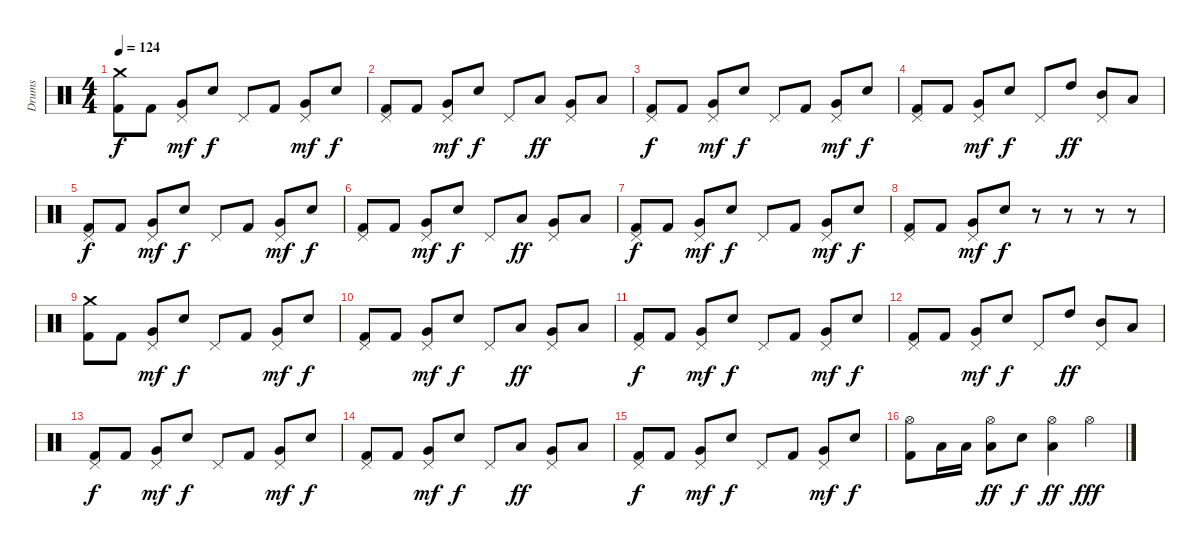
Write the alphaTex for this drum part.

\track ("Drums" "Drums") {instrument percussion}
\staff {score}
\articulation defaults
\ts (4 4)
\tempo 124
\clef neutral
\ks c
("Crash medium (hit)" "Kick (hit) 2").8{dy f} "Kick (hit) 2".8 ("Pedal Hi-Hat (hit)" "Very Low Tom (hit)").8{dy mf} "Snare (hit) 2".8{dy f} "Pedal Hi-Hat (hit)".8 "Kick (hit) 2".8 ("Pedal Hi-Hat (hit)" "Very Low Tom (hit)").8{dy mf} "Snare (hit) 2".8{dy f} |
("Pedal Hi-Hat (hit)" "Kick (hit) 2").8 "Kick (hit) 2".8 ("Pedal Hi-Hat (hit)" "Very Low Tom (hit)").8{dy mf} "Snare (hit) 2".8{dy f} "Pedal Hi-Hat (hit)".8 "Low Tom (hit)".8{dy ff} ("Pedal Hi-Hat (hit)" "Very Low Tom (hit)").8 "Low Floor Tom (hit)".8 |
("Pedal Hi-Hat (hit)" "Kick (hit) 2").8{dy f} "Kick (hit) 2".8 ("Pedal Hi-Hat (hit)" "Very Low Tom (hit)").8{dy mf} "Snare (hit) 2".8{dy f} "Pedal Hi-Hat (hit)".8 "Kick (hit) 2".8 ("Pedal Hi-Hat (hit)" "Very Low Tom (hit)").8{dy mf} "Snare (hit) 2".8{dy f} |
("Pedal Hi-Hat (hit)" "Kick (hit) 2").8 "Kick (hit) 2".8 ("Pedal Hi-Hat (hit)" "Very Low Tom (hit)").8{dy mf} "Snare (hit) 2".8{dy f} "Pedal Hi-Hat (hit)".8 "High Tom (hit)".8{dy ff} ("Pedal Hi-Hat (hit)" "Mid Tom (hit)").8 "Low Tom (hit)".8 |
("Pedal Hi-Hat (hit)" "Kick (hit) 2").8{dy f} "Kick (hit) 2".8 ("Pedal Hi-Hat (hit)" "Very Low Tom (hit)").8{dy mf} "Snare (hit) 2".8{dy f} "Pedal Hi-Hat (hit)".8 "Kick (hit) 2".8 ("Pedal Hi-Hat (hit)" "Very Low Tom (hit)").8{dy mf} "Snare (hit) 2".8{dy f} |
("Pedal Hi-Hat (hit)" "Kick (hit) 2").8 "Kick (hit) 2".8 ("Pedal Hi-Hat (hit)" "Very Low Tom (hit)").8{dy mf} "Snare (hit) 2".8{dy f} "Pedal Hi-Hat (hit)".8 "Low Tom (hit)".8{dy ff} ("Pedal Hi-Hat (hit)" "Very Low Tom (hit)").8 "Low Floor Tom (hit)".8 |
("Pedal Hi-Hat (hit)" "Kick (hit) 2").8{dy f} "Kick (hit) 2".8 ("Pedal Hi-Hat (hit)" "Very Low Tom (hit)").8{dy mf} "Snare (hit) 2".8{dy f} "Pedal Hi-Hat (hit)".8 "Kick (hit) 2".8 ("Pedal Hi-Hat (hit)" "Very Low Tom (hit)").8{dy mf} "Snare (hit) 2".8{dy f} |
("Pedal Hi-Hat (hit)" "Kick (hit) 2").8 "Kick (hit) 2".8 ("Pedal Hi-Hat (hit)" "Very Low Tom (hit)").8{dy mf} "Snare (hit) 2".8{dy f} r.8 r.8 r.8 r.8 |
("Crash medium (hit)" "Kick (hit) 2").8 "Kick (hit) 2".8 ("Pedal Hi-Hat (hit)" "Very Low Tom (hit)").8{dy mf} "Snare (hit) 2".8{dy f} "Pedal Hi-Hat (hit)".8 "Kick (hit) 2".8 ("Pedal Hi-Hat (hit)" "Very Low Tom (hit)").8{dy mf} "Snare (hit) 2".8{dy f} |
("Pedal Hi-Hat (hit)" "Kick (hit) 2").8 "Kick (hit) 2".8 ("Pedal Hi-Hat (hit)" "Very Low Tom (hit)").8{dy mf} "Snare (hit) 2".8{dy f} "Pedal Hi-Hat (hit)".8 "Low Tom (hit)".8{dy ff} ("Pedal Hi-Hat (hit)" "Very Low Tom (hit)").8 "Low Floor Tom (hit)".8 |
("Pedal Hi-Hat (hit)" "Kick (hit) 2").8{dy f} "Kick (hit) 2".8 ("Pedal Hi-Hat (hit)" "Very Low Tom (hit)").8{dy mf} "Snare (hit) 2".8{dy f} "Pedal Hi-Hat (hit)".8 "Kick (hit) 2".8 ("Pedal Hi-Hat (hit)" "Very Low Tom (hit)").8{dy mf} "Snare (hit) 2".8{dy f} |
("Pedal Hi-Hat (hit)" "Kick (hit) 2").8 "Kick (hit) 2".8 ("Pedal Hi-Hat (hit)" "Very Low Tom (hit)").8{dy mf} "Snare (hit) 2".8{dy f} "Pedal Hi-Hat (hit)".8 "High Tom (hit)".8{dy ff} ("Pedal Hi-Hat (hit)" "Mid Tom (hit)").8 "Low Tom (hit)".8 |
("Pedal Hi-Hat (hit)" "Kick (hit) 2").8{dy f} "Kick (hit) 2".8 ("Pedal Hi-Hat (hit)" "Very Low Tom (hit)").8{dy mf} "Snare (hit) 2".8{dy f} "Pedal Hi-Hat (hit)".8 "Kick (hit) 2".8 ("Pedal Hi-Hat (hit)" "Very Low Tom (hit)").8{dy mf} "Snare (hit) 2".8{dy f} |
("Pedal Hi-Hat (hit)" "Kick (hit) 2").8 "Kick (hit) 2".8 ("Pedal Hi-Hat (hit)" "Very Low Tom (hit)").8{dy mf} "Snare (hit) 2".8{dy f} "Pedal Hi-Hat (hit)".8 "Low Tom (hit)".8{dy ff} ("Pedal Hi-Hat (hit)" "Very Low Tom (hit)").8 "Low Floor Tom (hit)".8 |
("Pedal Hi-Hat (hit)" "Kick (hit) 2").8{dy f} "Kick (hit) 2".8 ("Pedal Hi-Hat (hit)" "Very Low Tom (hit)").8{dy mf} "Snare (hit) 2".8{dy f} "Pedal Hi-Hat (hit)".8 "Kick (hit) 2".8 ("Pedal Hi-Hat (hit)" "Very Low Tom (hit)").8{dy mf} "Snare (hit) 2".8{dy f} |
("Hi-Hat (open)" "Kick (hit) 2").8 "Low Tom (hit)".16 "Low Tom (hit)".16 ("Hi-Hat (open)" "Low Tom (hit)").8{dy ff} "Snare (hit) 2".8{dy f} ("Hi-Hat (open)" "Low Tom (hit)").4{dy ff} "Hi-Hat (open)".4{dy fff}
